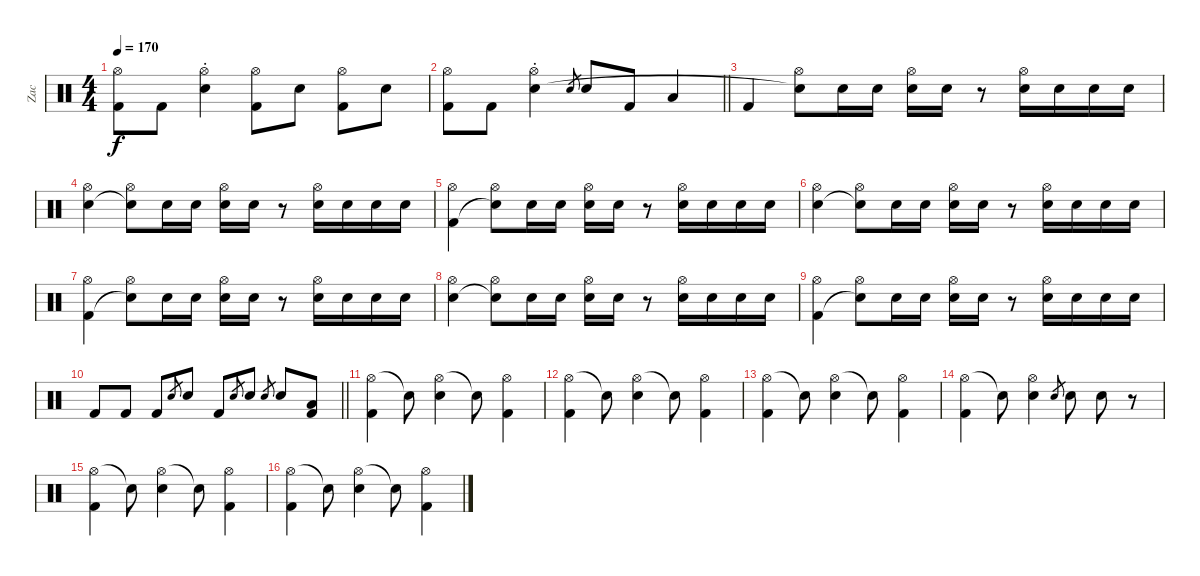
\track ("Zac" "Zac") {instrument percussion}
\staff {score}
\articulation defaults
\ts (4 4)
\tempo 170
\clef neutral
\ks c
("Hi-Hat (open)" "Kick (hit) 2").8{dy f} "Kick (hit) 2".8 ("Hi-Hat (open)"{st} "Electric Snare (hit)").4 ("Hi-Hat (open)" "Kick (hit) 2").8 "Electric Snare (hit)".8 ("Hi-Hat (open)" "Kick (hit) 2").8 "Electric Snare (hit)".8 |
\barLineRight lightlight
("Hi-Hat (open)" "Kick (hit) 2").8 "Kick (hit) 2".8 ("Hi-Hat (open)"{st} "Electric Snare (hit)").4 "Electric Snare (hit)".8{gr} "Electric Snare (hit)".8 "Kick (hit) 2".8 "Low Floor Tom (hit)".4 |
\section ("" "")
"Kick (hit) 2".4 ("Hi-Hat (open)" "Snare (hit)"{t}).8 "Electric Snare (hit)".16 "Electric Snare (hit)".16 ("Hi-Hat (open)" "Electric Snare (hit)").16 "Electric Snare (hit)".16 r.8 ("Hi-Hat (open)" "Electric Snare (hit)").16 "Electric Snare (hit)".16 "Electric Snare (hit)".16 "Electric Snare (hit)".16 |
("Hi-Hat (open)" "Electric Snare (hit)").4 ("Hi-Hat (open)" "Snare (hit)"{t}).8 "Electric Snare (hit)".16 "Electric Snare (hit)".16 ("Hi-Hat (open)" "Electric Snare (hit)").16 "Electric Snare (hit)".16 r.8 ("Hi-Hat (open)" "Electric Snare (hit)").16 "Electric Snare (hit)".16 "Electric Snare (hit)".16 "Electric Snare (hit)".16 |
("Hi-Hat (open)" "Kick (hit) 2").4 ("Hi-Hat (open)" "Snare (hit)"{t}).8 "Electric Snare (hit)".16 "Electric Snare (hit)".16 ("Hi-Hat (open)" "Electric Snare (hit)").16 "Electric Snare (hit)".16 r.8 ("Hi-Hat (open)" "Electric Snare (hit)").16 "Electric Snare (hit)".16 "Electric Snare (hit)".16 "Electric Snare (hit)".16 |
("Hi-Hat (open)" "Electric Snare (hit)").4 ("Hi-Hat (open)" "Snare (hit)"{t}).8 "Electric Snare (hit)".16 "Electric Snare (hit)".16 ("Hi-Hat (open)" "Electric Snare (hit)").16 "Electric Snare (hit)".16 r.8 ("Hi-Hat (open)" "Electric Snare (hit)").16 "Electric Snare (hit)".16 "Electric Snare (hit)".16 "Electric Snare (hit)".16 |
("Hi-Hat (open)" "Kick (hit) 2").4 ("Hi-Hat (open)" "Snare (hit)"{t}).8 "Electric Snare (hit)".16 "Electric Snare (hit)".16 ("Hi-Hat (open)" "Electric Snare (hit)").16 "Electric Snare (hit)".16 r.8 ("Hi-Hat (open)" "Electric Snare (hit)").16 "Electric Snare (hit)".16 "Electric Snare (hit)".16 "Electric Snare (hit)".16 |
("Hi-Hat (open)" "Electric Snare (hit)").4 ("Hi-Hat (open)" "Snare (hit)"{t}).8 "Electric Snare (hit)".16 "Electric Snare (hit)".16 ("Hi-Hat (open)" "Electric Snare (hit)").16 "Electric Snare (hit)".16 r.8 ("Hi-Hat (open)" "Electric Snare (hit)").16 "Electric Snare (hit)".16 "Electric Snare (hit)".16 "Electric Snare (hit)".16 |
("Hi-Hat (open)" "Kick (hit) 2").4 ("Hi-Hat (open)" "Snare (hit)"{t}).8 "Electric Snare (hit)".16 "Electric Snare (hit)".16 ("Hi-Hat (open)" "Electric Snare (hit)").16 "Electric Snare (hit)".16 r.8 ("Hi-Hat (open)" "Electric Snare (hit)").16 "Electric Snare (hit)".16 "Electric Snare (hit)".16 "Electric Snare (hit)".16 |
\barLineRight lightlight "Kick (hit) 2".8 "Kick (hit) 2".8 "Kick (hit) 2".8 "Electric Snare (hit)".8{gr} "Electric Snare (hit)".8 "Kick (hit) 2".8 "Electric Snare (hit)".8{gr} "Electric Snare (hit)".8 "Electric Snare (hit)".8{gr} "Electric Snare (hit)".8
("Low Floor Tom (hit)" "Kick (hit) 2").8 |
\section ("" "")
("Hi-Hat (open)" "Kick (hit) 2").4 "Snare (hit)"{t}.8 ("Hi-Hat (open)" "Electric Snare (hit)").4 "Snare (hit)"{t}.8 ("Hi-Hat (open)" "Kick (hit) 2").4 |
("Hi-Hat (open)" "Kick (hit) 2").4 "Snare (hit)"{t}.8 ("Hi-Hat (open)" "Electric Snare (hit)").4 "Snare (hit)"{t}.8 ("Hi-Hat (open)" "Kick (hit) 2").4 |
("Hi-Hat (open)" "Kick (hit) 2").4 "Snare (hit)"{t}.8 ("Hi-Hat (open)" "Electric Snare (hit)").4 "Snare (hit)"{t}.8 ("Hi-Hat (open)" "Kick (hit) 2").4 |
("Hi-Hat (open)" "Kick (hit) 2").4 "Snare (hit)"{t}.8 ("Hi-Hat (open)" "Electric Snare (hit)").4 "Electric Snare (hit)".8{gr} "Electric Snare (hit)".8 "Electric Snare (hit)".8 r.8 |
("Hi-Hat (open)" "Kick (hit) 2").4 "Snare (hit)"{t}.8 ("Hi-Hat (open)" "Electric Snare (hit)").4 "Snare (hit)"{t}.8 ("Hi-Hat (open)" "Kick (hit) 2").4 |
("Hi-Hat (open)" "Kick (hit) 2").4 "Snare (hit)"{t}.8 ("Hi-Hat (open)" "Electric Snare (hit)").4 "Snare (hit)"{t}.8 ("Hi-Hat (open)" "Kick (hit) 2").4
